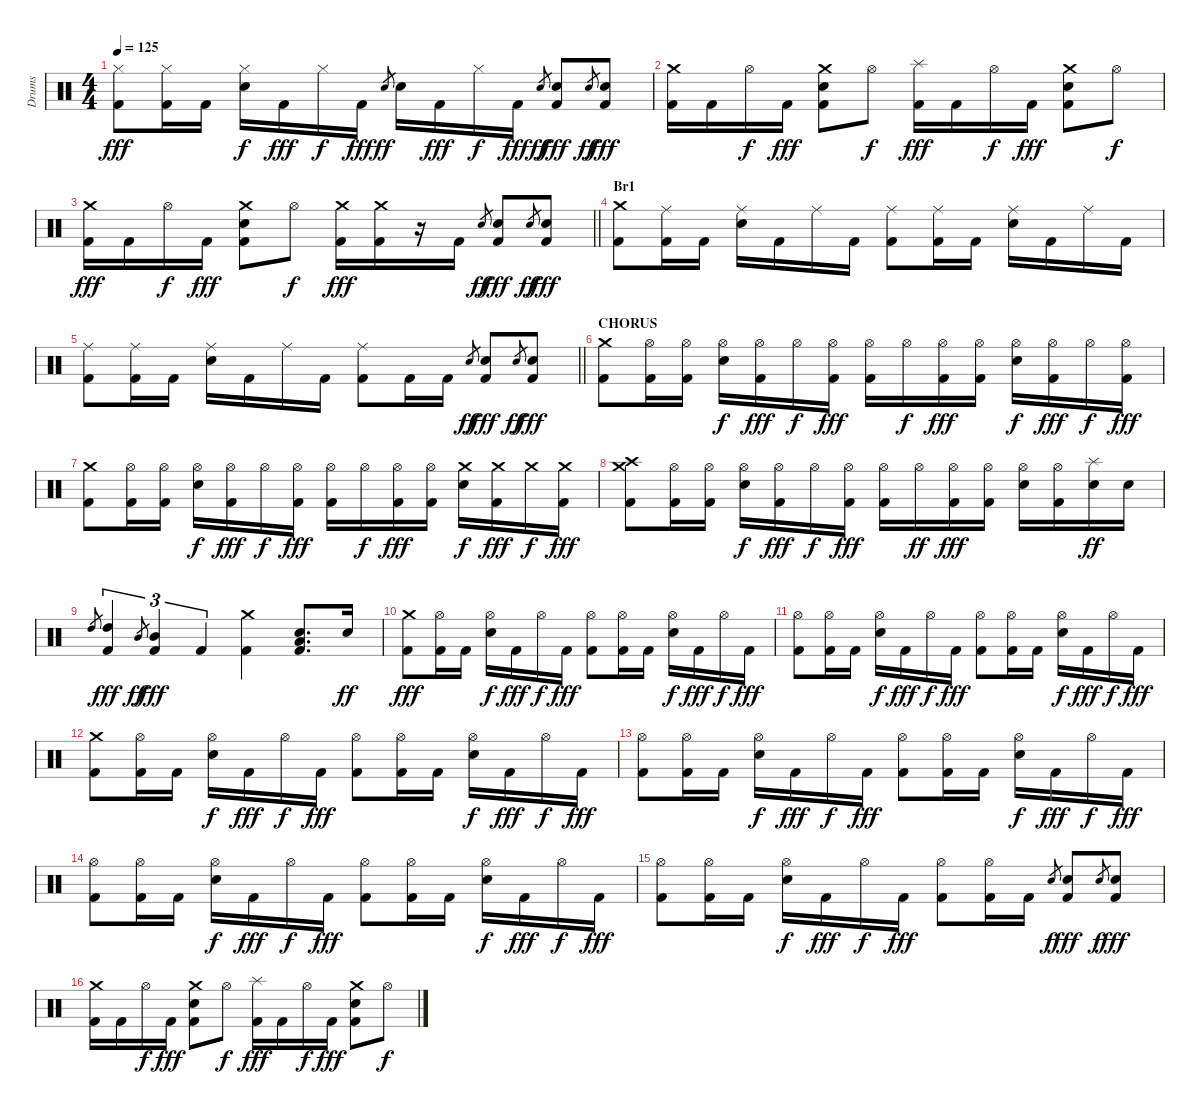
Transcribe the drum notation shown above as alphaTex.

\track ("Drums" "Drums") {instrument percussion}
\staff {score}
\articulation defaults
\ts (4 4)
\tempo 125
\clef neutral
\ks c
("Hi-Hat (closed)" "Kick (hit) 2").8{dy fff} ("Hi-Hat (closed)" "Kick (hit) 2").16 "Kick (hit) 2".16 ("Hi-Hat (closed)" "Electric Snare (hit)").16{dy f} "Kick (hit) 2".16{dy fff} "Hi-Hat (closed)".16{dy f} "Kick (hit) 2".16{dy fff} "Electric Snare (hit)".8{gr dy ff} "Electric Snare (hit)".16 "Kick (hit) 2".16{dy fff} "Hi-Hat (closed)".16{dy f} "Kick (hit) 2".16{dy fff} "Electric Snare (hit)".8{gr dy ff} ("Electric Snare (hit)" "Kick (hit) 2").8{dy fff} "Electric Snare (hit)".8{gr dy ff} ("Electric Snare (hit)" "Kick (hit) 2").8{dy fff} |
("Crash medium (hit)" "Kick (hit) 2").16 "Kick (hit) 2".16 "Hi-Hat (open)".16{dy f} "Kick (hit) 2".16{dy fff} ("Crash medium (hit)" "Electric Snare (hit)" "Kick (hit) 2").8 "Hi-Hat (open)".8{dy f} ("Splash (hit)" "Kick (hit) 2").16{dy fff} "Kick (hit) 2".16 "Hi-Hat (open)".16{dy f} "Kick (hit) 2".16{dy fff} ("Crash medium (hit)" "Electric Snare (hit)" "Kick (hit) 2").8 "Hi-Hat (open)".8{dy f} |
\barLineRight lightlight
("Crash medium (hit)" "Kick (hit) 2").16{dy fff} "Kick (hit) 2".16 "Hi-Hat (open)".16{dy f} "Kick (hit) 2".16{dy fff} ("Crash medium (hit)" "Electric Snare (hit)" "Kick (hit) 2").8 "Hi-Hat (open)".8{dy f} ("Crash medium (hit)" "Kick (hit) 2").16{dy fff} ("Crash medium (hit)" "Kick (hit) 2").16 r.16 "Kick (hit) 2".16 "Electric Snare (hit)".8{gr dy ff} ("Electric Snare (hit)" "Kick (hit) 2").8{dy fff} "Electric Snare (hit)".8{gr dy ff} ("Electric Snare (hit)" "Kick (hit) 2").8{dy fff} |
\section ("" "Br1")
("Crash medium (hit)" "Kick (hit) 2").8 ("Ride (middle)" "Kick (hit) 2").16 "Kick (hit) 2".16 ("Ride (middle)" "Electric Snare (hit)").16 "Kick (hit) 2".16 "Ride (middle)".16 "Kick (hit) 2".16 ("Ride (middle)" "Kick (hit) 2").8 ("Ride (middle)" "Kick (hit) 2").16 "Kick (hit) 2".16 ("Ride (middle)" "Electric Snare (hit)").16 "Kick (hit) 2".16 "Ride (middle)".16 "Kick (hit) 2".16 |
\barLineRight lightlight
("Ride (middle)" "Kick (hit) 2").8 ("Ride (middle)" "Kick (hit) 2").16 "Kick (hit) 2".16 ("Ride (middle)" "Electric Snare (hit)").16 "Kick (hit) 2".16 "Ride (middle)".16 "Kick (hit) 2".16 ("Ride (middle)" "Kick (hit) 2").8 "Kick (hit) 2".16 "Kick (hit) 2".16 "Electric Snare (hit)".8{gr dy ff} ("Electric Snare (hit)" "Kick (hit) 2").8{dy fff} "Electric Snare (hit)".8{gr dy ff} ("Electric Snare (hit)" "Kick (hit) 2").8{dy fff} |
\section ("" "CHORUS")
("Crash medium (hit)" "Kick (hit) 2").8 ("Hi-Hat (open)" "Kick (hit) 2").16 ("Hi-Hat (open)" "Kick (hit) 2").16 ("Hi-Hat (open)" "Electric Snare (hit)").16{dy f} ("Hi-Hat (open)" "Kick (hit) 2").16{dy fff} "Hi-Hat (open)".16{dy f} ("Hi-Hat (open)" "Kick (hit) 2").16{dy fff} ("Hi-Hat (open)" "Kick (hit) 2").16 "Hi-Hat (open)".16{dy f} ("Hi-Hat (open)" "Kick (hit) 2").16{dy fff} ("Hi-Hat (open)" "Kick (hit) 2").16 ("Hi-Hat (open)" "Electric Snare (hit)").16{dy f} ("Hi-Hat (open)" "Kick (hit) 2").16{dy fff} "Hi-Hat (open)".16{dy f} ("Hi-Hat (open)" "Kick (hit) 2").16{dy fff} |
("Crash medium (hit)" "Kick (hit) 2").8 ("Hi-Hat (open)" "Kick (hit) 2").16 ("Hi-Hat (open)" "Kick (hit) 2").16 ("Hi-Hat (open)" "Electric Snare (hit)").16{dy f} ("Hi-Hat (open)" "Kick (hit) 2").16{dy fff} "Hi-Hat (open)".16{dy f} ("Hi-Hat (open)" "Kick (hit) 2").16{dy fff} ("Hi-Hat (open)" "Kick (hit) 2").16 "Hi-Hat (open)".16{dy f} ("Hi-Hat (open)" "Kick (hit) 2").16{dy fff} ("Hi-Hat (open)" "Kick (hit) 2").16 ("Crash medium (hit)" "Electric Snare (hit)").16{dy f} ("Crash medium (hit)" "Kick (hit) 2").16{dy fff} "Crash medium (hit)".16{dy f} ("Crash medium (hit)" "Kick (hit) 2").16{dy fff} |
("Crash medium (hit)" "Crash high (hit)" "Kick (hit) 2").8 ("Hi-Hat (open)" "Kick (hit) 2").16 ("Hi-Hat (open)" "Kick (hit) 2").16 ("Hi-Hat (open)" "Electric Snare (hit)").16{dy f} ("Hi-Hat (open)" "Kick (hit) 2").16{dy fff} "Hi-Hat (open)".16{dy f} ("Hi-Hat (open)" "Kick (hit) 2").16{dy fff} ("Hi-Hat (open)" "Kick (hit) 2").16 "Hi-Hat (open)".16{dy ff} ("Hi-Hat (open)" "Kick (hit) 2").16{dy fff} ("Hi-Hat (open)" "Kick (hit) 2").16 ("Hi-Hat (open)" "Electric Snare (hit)").16 ("Hi-Hat (open)" "Kick (hit) 2").16 ("Splash (hit)" "Electric Snare (hit)").16{dy ff} "Electric Snare (hit)".16 |
"High Tom (hit)".8{gr} ("High Tom (hit)" "Kick (hit) 2").4{tu (3 2) dy fff} "Mid Tom (hit)".8{gr dy ff} ("Mid Tom (hit)" "Kick (hit) 2").4{tu (3 2) dy fff} "Kick (hit) 2".4{tu (3 2)} ("Crash medium (hit)" "Kick (hit) 2").4 ("Electric Snare (hit)" "Low Tom (hit)" "Kick (hit) 2").8{d} "Electric Snare (hit)".16{dy ff} |
("Crash medium (hit)" "Kick (hit) 2").8{dy fff} ("Hi-Hat (open)" "Kick (hit) 2").16 "Kick (hit) 2".16 ("Hi-Hat (open)" "Electric Snare (hit)").16{dy f} "Kick (hit) 2".16{dy fff} "Hi-Hat (open)".16{dy f} "Kick (hit) 2".16{dy fff} ("Hi-Hat (open)" "Kick (hit) 2").8 ("Hi-Hat (open)" "Kick (hit) 2").16 "Kick (hit) 2".16 ("Hi-Hat (open)" "Electric Snare (hit)").16{dy f} "Kick (hit) 2".16{dy fff} "Hi-Hat (open)".16{dy f} "Kick (hit) 2".16{dy fff} |
("Hi-Hat (open)" "Kick (hit) 2").8 ("Hi-Hat (open)" "Kick (hit) 2").16 "Kick (hit) 2".16 ("Hi-Hat (open)" "Electric Snare (hit)").16{dy f} "Kick (hit) 2".16{dy fff} "Hi-Hat (open)".16{dy f} "Kick (hit) 2".16{dy fff} ("Hi-Hat (open)" "Kick (hit) 2").8 ("Hi-Hat (open)" "Kick (hit) 2").16 "Kick (hit) 2".16 ("Hi-Hat (open)" "Electric Snare (hit)").16{dy f} "Kick (hit) 2".16{dy fff} "Hi-Hat (open)".16{dy f} "Kick (hit) 2".16{dy fff} |
("Crash medium (hit)" "Kick (hit) 2").8 ("Hi-Hat (open)" "Kick (hit) 2").16 "Kick (hit) 2".16 ("Hi-Hat (open)" "Electric Snare (hit)").16{dy f} "Kick (hit) 2".16{dy fff} "Hi-Hat (open)".16{dy f} "Kick (hit) 2".16{dy fff} ("Hi-Hat (open)" "Kick (hit) 2").8 ("Hi-Hat (open)" "Kick (hit) 2").16 "Kick (hit) 2".16 ("Hi-Hat (open)" "Electric Snare (hit)").16{dy f} "Kick (hit) 2".16{dy fff} "Hi-Hat (open)".16{dy f} "Kick (hit) 2".16{dy fff} |
("Hi-Hat (open)" "Kick (hit) 2").8 ("Hi-Hat (open)" "Kick (hit) 2").16 "Kick (hit) 2".16 ("Hi-Hat (open)" "Electric Snare (hit)").16{dy f} "Kick (hit) 2".16{dy fff} "Hi-Hat (open)".16{dy f} "Kick (hit) 2".16{dy fff} ("Hi-Hat (open)" "Kick (hit) 2").8 ("Hi-Hat (open)" "Kick (hit) 2").16 "Kick (hit) 2".16 ("Hi-Hat (open)" "Electric Snare (hit)").16{dy f} "Kick (hit) 2".16{dy fff} "Hi-Hat (open)".16{dy f} "Kick (hit) 2".16{dy fff} |
("Hi-Hat (open)" "Kick (hit) 2").8 ("Hi-Hat (open)" "Kick (hit) 2").16 "Kick (hit) 2".16 ("Hi-Hat (open)" "Electric Snare (hit)").16{dy f} "Kick (hit) 2".16{dy fff} "Hi-Hat (open)".16{dy f} "Kick (hit) 2".16{dy fff} ("Hi-Hat (open)" "Kick (hit) 2").8 ("Hi-Hat (open)" "Kick (hit) 2").16 "Kick (hit) 2".16 ("Hi-Hat (open)" "Electric Snare (hit)").16{dy f} "Kick (hit) 2".16{dy fff} "Hi-Hat (open)".16{dy f} "Kick (hit) 2".16{dy fff} |
("Hi-Hat (open)" "Kick (hit) 2").8 ("Hi-Hat (open)" "Kick (hit) 2").16 "Kick (hit) 2".16 ("Hi-Hat (open)" "Electric Snare (hit)").16{dy f} "Kick (hit) 2".16{dy fff} "Hi-Hat (open)".16{dy f} "Kick (hit) 2".16{dy fff} ("Hi-Hat (open)" "Kick (hit) 2").8 ("Hi-Hat (open)" "Kick (hit) 2").16 "Kick (hit) 2".16 "Electric Snare (hit)".8{gr dy f} ("Electric Snare (hit)" "Kick (hit) 2").8{dy fff} "Electric Snare (hit)".8{gr dy f} ("Electric Snare (hit)" "Kick (hit) 2").8{dy fff} |
("Crash medium (hit)" "Kick (hit) 2").16 "Kick (hit) 2".16 "Hi-Hat (open)".16{dy f} "Kick (hit) 2".16{dy fff} ("Crash medium (hit)" "Electric Snare (hit)" "Kick (hit) 2").8 "Hi-Hat (open)".8{dy f} ("Splash (hit)" "Kick (hit) 2").16{dy fff} "Kick (hit) 2".16 "Hi-Hat (open)".16{dy f} "Kick (hit) 2".16{dy fff} ("Crash medium (hit)" "Electric Snare (hit)" "Kick (hit) 2").8 "Hi-Hat (open)".8{dy f}
